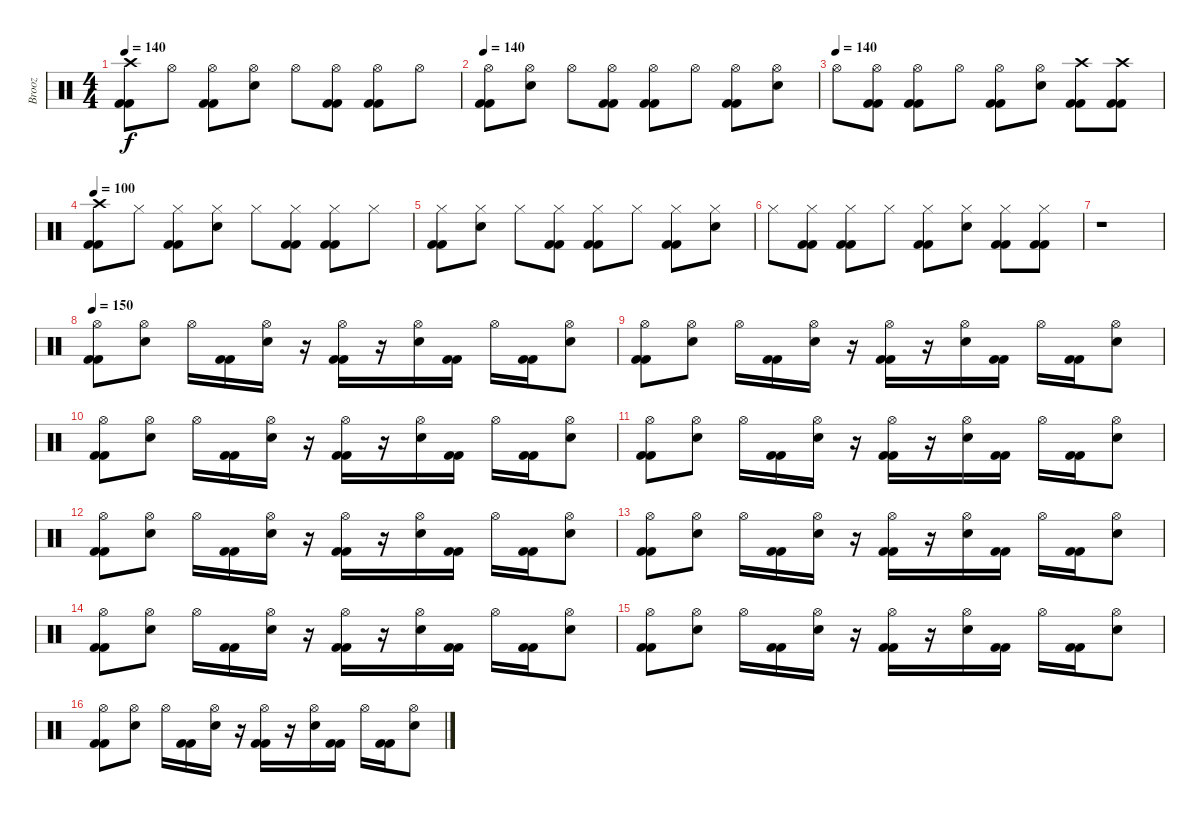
\track ("Brooz" "Brooz") {instrument percussion}
\staff {score}
\articulation defaults
\ts (4 4)
\tempo 140
\clef neutral
\ks c
("Crash high (hit)" "Kick (hit) 2" "Kick (hit) 2").8{dy f} "Hi-Hat (open)".8 ("Hi-Hat (open)" "Kick (hit) 2" "Kick (hit) 2").8 ("Hi-Hat (open)" "Electric Snare (hit)").8 "Hi-Hat (open)".8 ("Hi-Hat (open)" "Kick (hit) 2" "Kick (hit) 2").8 ("Hi-Hat (open)" "Kick (hit) 2" "Kick (hit) 2").8 "Hi-Hat (open)".8 |
\tempo 140
("Hi-Hat (open)" "Kick (hit) 2" "Kick (hit) 2").8 ("Hi-Hat (open)" "Electric Snare (hit)").8 "Hi-Hat (open)".8 ("Hi-Hat (open)" "Kick (hit) 2" "Kick (hit) 2").8 ("Hi-Hat (open)" "Kick (hit) 2" "Kick (hit) 2").8 "Hi-Hat (open)".8 ("Hi-Hat (open)" "Kick (hit) 2" "Kick (hit) 2").8 ("Hi-Hat (open)" "Electric Snare (hit)").8 |
\tempo (140)
"Hi-Hat (open)".8 ("Hi-Hat (open)" "Kick (hit) 2" "Kick (hit) 2").8 ("Hi-Hat (open)" "Kick (hit) 2" "Kick (hit) 2").8 "Hi-Hat (open)".8 ("Hi-Hat (open)" "Kick (hit) 2" "Kick (hit) 2").8 ("Hi-Hat (open)" "Electric Snare (hit)").8 ("Crash high (hit)" "Kick (hit) 2" "Kick (hit) 2").8 ("Crash high (hit)" "Kick (hit) 2" "Kick (hit) 2").8 |
\tempo 100
("Crash high (hit)" "Kick (hit) 2" "Kick (hit) 2").8 "Hi-Hat (closed)".8 ("Hi-Hat (closed)" "Kick (hit) 2" "Kick (hit) 2").8 ("Hi-Hat (closed)" "Electric Snare (hit)").8 "Hi-Hat (closed)".8 ("Hi-Hat (closed)" "Kick (hit) 2" "Kick (hit) 2").8 ("Hi-Hat (closed)" "Kick (hit) 2" "Kick (hit) 2").8 "Hi-Hat (closed)".8 |
("Hi-Hat (closed)" "Kick (hit) 2" "Kick (hit) 2").8 ("Hi-Hat (closed)" "Electric Snare (hit)").8 "Hi-Hat (closed)".8 ("Hi-Hat (closed)" "Kick (hit) 2" "Kick (hit) 2").8 ("Hi-Hat (closed)" "Kick (hit) 2" "Kick (hit) 2").8 "Hi-Hat (closed)".8 ("Hi-Hat (closed)" "Kick (hit) 2" "Kick (hit) 2").8 ("Hi-Hat (closed)" "Electric Snare (hit)").8 |
"Hi-Hat (closed)".8 ("Hi-Hat (closed)" "Kick (hit) 2" "Kick (hit) 2").8 ("Hi-Hat (closed)" "Kick (hit) 2" "Kick (hit) 2").8 "Hi-Hat (closed)".8 ("Hi-Hat (closed)" "Kick (hit) 2" "Kick (hit) 2").8 ("Hi-Hat (closed)" "Electric Snare (hit)").8 ("Hi-Hat (closed)" "Kick (hit) 2" "Kick (hit) 2").8 ("Hi-Hat (closed)" "Kick (hit) 2" "Kick (hit) 2").8 |
r.1 |
\tempo 150
("Hi-Hat (open)" "Kick (hit) 2" "Kick (hit) 2").8 ("Hi-Hat (open)" "Electric Snare (hit)").8 "Hi-Hat (open)".16 ("Kick (hit) 2" "Kick (hit) 2").16 ("Hi-Hat (open)" "Electric Snare (hit)").16 r.16 ("Hi-Hat (open)" "Kick (hit) 2" "Kick (hit) 2").16 r.16 ("Hi-Hat (open)" "Electric Snare (hit)").16 ("Kick (hit) 2" "Kick (hit) 2").16 "Hi-Hat (open)".16 ("Kick (hit) 2" "Kick (hit) 2").16 ("Hi-Hat (open)" "Electric Snare (hit)").8 |
("Hi-Hat (open)" "Kick (hit) 2" "Kick (hit) 2").8 ("Hi-Hat (open)" "Electric Snare (hit)").8 "Hi-Hat (open)".16 ("Kick (hit) 2" "Kick (hit) 2").16 ("Hi-Hat (open)" "Electric Snare (hit)").16 r.16 ("Hi-Hat (open)" "Kick (hit) 2" "Kick (hit) 2").16 r.16 ("Hi-Hat (open)" "Electric Snare (hit)").16 ("Kick (hit) 2" "Kick (hit) 2").16 "Hi-Hat (open)".16 ("Kick (hit) 2" "Kick (hit) 2").16 ("Hi-Hat (open)" "Electric Snare (hit)").8 |
("Hi-Hat (open)" "Kick (hit) 2" "Kick (hit) 2").8 ("Hi-Hat (open)" "Electric Snare (hit)").8 "Hi-Hat (open)".16 ("Kick (hit) 2" "Kick (hit) 2").16 ("Hi-Hat (open)" "Electric Snare (hit)").16 r.16 ("Hi-Hat (open)" "Kick (hit) 2" "Kick (hit) 2").16 r.16 ("Hi-Hat (open)" "Electric Snare (hit)").16 ("Kick (hit) 2" "Kick (hit) 2").16 "Hi-Hat (open)".16 ("Kick (hit) 2" "Kick (hit) 2").16 ("Hi-Hat (open)" "Electric Snare (hit)").8 |
("Hi-Hat (open)" "Kick (hit) 2" "Kick (hit) 2").8 ("Hi-Hat (open)" "Electric Snare (hit)").8 "Hi-Hat (open)".16 ("Kick (hit) 2" "Kick (hit) 2").16 ("Hi-Hat (open)" "Electric Snare (hit)").16 r.16 ("Hi-Hat (open)" "Kick (hit) 2" "Kick (hit) 2").16 r.16 ("Hi-Hat (open)" "Electric Snare (hit)").16 ("Kick (hit) 2" "Kick (hit) 2").16 "Hi-Hat (open)".16 ("Kick (hit) 2" "Kick (hit) 2").16 ("Hi-Hat (open)" "Electric Snare (hit)").8 |
("Hi-Hat (open)" "Kick (hit) 2" "Kick (hit) 2").8 ("Hi-Hat (open)" "Electric Snare (hit)").8 "Hi-Hat (open)".16 ("Kick (hit) 2" "Kick (hit) 2").16 ("Hi-Hat (open)" "Electric Snare (hit)").16 r.16 ("Hi-Hat (open)" "Kick (hit) 2" "Kick (hit) 2").16 r.16 ("Hi-Hat (open)" "Electric Snare (hit)").16 ("Kick (hit) 2" "Kick (hit) 2").16 "Hi-Hat (open)".16 ("Kick (hit) 2" "Kick (hit) 2").16 ("Hi-Hat (open)" "Electric Snare (hit)").8 |
("Hi-Hat (open)" "Kick (hit) 2" "Kick (hit) 2").8 ("Hi-Hat (open)" "Electric Snare (hit)").8 "Hi-Hat (open)".16 ("Kick (hit) 2" "Kick (hit) 2").16 ("Hi-Hat (open)" "Electric Snare (hit)").16 r.16 ("Hi-Hat (open)" "Kick (hit) 2" "Kick (hit) 2").16 r.16 ("Hi-Hat (open)" "Electric Snare (hit)").16 ("Kick (hit) 2" "Kick (hit) 2").16 "Hi-Hat (open)".16 ("Kick (hit) 2" "Kick (hit) 2").16 ("Hi-Hat (open)" "Electric Snare (hit)").8 |
("Hi-Hat (open)" "Kick (hit) 2" "Kick (hit) 2").8 ("Hi-Hat (open)" "Electric Snare (hit)").8 "Hi-Hat (open)".16 ("Kick (hit) 2" "Kick (hit) 2").16 ("Hi-Hat (open)" "Electric Snare (hit)").16 r.16 ("Hi-Hat (open)" "Kick (hit) 2" "Kick (hit) 2").16 r.16 ("Hi-Hat (open)" "Electric Snare (hit)").16 ("Kick (hit) 2" "Kick (hit) 2").16 "Hi-Hat (open)".16 ("Kick (hit) 2" "Kick (hit) 2").16 ("Hi-Hat (open)" "Electric Snare (hit)").8 |
("Hi-Hat (open)" "Kick (hit) 2" "Kick (hit) 2").8 ("Hi-Hat (open)" "Electric Snare (hit)").8 "Hi-Hat (open)".16 ("Kick (hit) 2" "Kick (hit) 2").16 ("Hi-Hat (open)" "Electric Snare (hit)").16 r.16 ("Hi-Hat (open)" "Kick (hit) 2" "Kick (hit) 2").16 r.16 ("Hi-Hat (open)" "Electric Snare (hit)").16 ("Kick (hit) 2" "Kick (hit) 2").16 "Hi-Hat (open)".16 ("Kick (hit) 2" "Kick (hit) 2").16 ("Hi-Hat (open)" "Electric Snare (hit)").8 |
("Hi-Hat (open)" "Kick (hit) 2" "Kick (hit) 2").8 ("Hi-Hat (open)" "Electric Snare (hit)").8 "Hi-Hat (open)".16 ("Kick (hit) 2" "Kick (hit) 2").16 ("Hi-Hat (open)" "Electric Snare (hit)").16 r.16 ("Hi-Hat (open)" "Kick (hit) 2" "Kick (hit) 2").16 r.16 ("Hi-Hat (open)" "Electric Snare (hit)").16 ("Kick (hit) 2" "Kick (hit) 2").16 "Hi-Hat (open)".16 ("Kick (hit) 2" "Kick (hit) 2").16 ("Hi-Hat (open)" "Electric Snare (hit)").8
